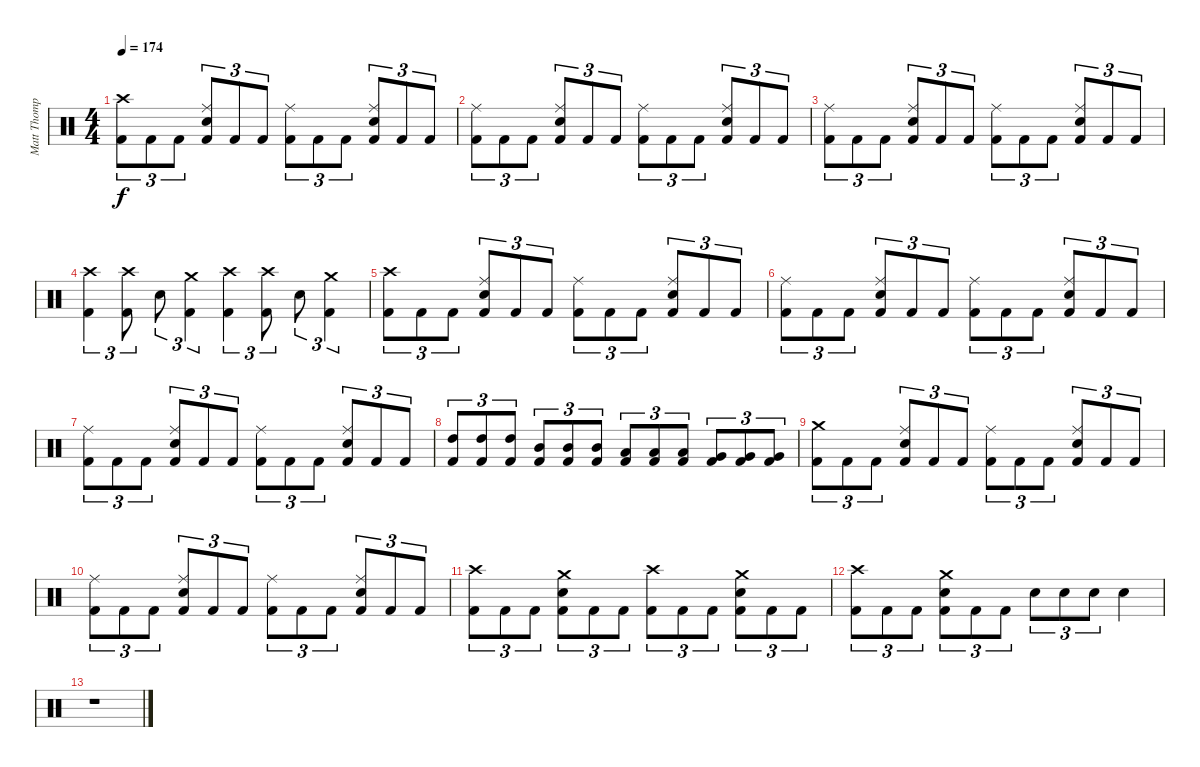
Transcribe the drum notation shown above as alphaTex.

\track ("Matt Thompson" "Matt Thomp") {instrument percussion}
\staff {score}
\articulation defaults
\ts (4 4)
\tempo 174
\clef neutral
\ks c
("Crash high (hit)" "Kick (hit) 2").8{tu (3 2) dy f} "Kick (hit) 2".8{tu (3 2)} "Kick (hit) 2".8{tu (3 2)} ("Ride (middle)" "Snare (hit) 2" "Kick (hit) 2").8{tu (3 2)} "Kick (hit) 2".8{tu (3 2)} "Kick (hit) 2".8{tu (3 2)} ("Ride (middle)" "Kick (hit) 2").8{tu (3 2)} "Kick (hit) 2".8{tu (3 2)} "Kick (hit) 2".8{tu (3 2)} ("Ride (middle)" "Snare (hit) 2" "Kick (hit) 2").8{tu (3 2)} "Kick (hit) 2".8{tu (3 2)} "Kick (hit) 2".8{tu (3 2)} |
("Ride (middle)" "Kick (hit) 2").8{tu (3 2)} "Kick (hit) 2".8{tu (3 2)} "Kick (hit) 2".8{tu (3 2)} ("Ride (middle)" "Snare (hit) 2" "Kick (hit) 2").8{tu (3 2)} "Kick (hit) 2".8{tu (3 2)} "Kick (hit) 2".8{tu (3 2)} ("Ride (middle)" "Kick (hit) 2").8{tu (3 2)} "Kick (hit) 2".8{tu (3 2)} "Kick (hit) 2".8{tu (3 2)} ("Ride (middle)" "Snare (hit) 2" "Kick (hit) 2").8{tu (3 2)} "Kick (hit) 2".8{tu (3 2)} "Kick (hit) 2".8{tu (3 2)} |
("Ride (middle)" "Kick (hit) 2").8{tu (3 2)} "Kick (hit) 2".8{tu (3 2)} "Kick (hit) 2".8{tu (3 2)} ("Ride (middle)" "Snare (hit) 2" "Kick (hit) 2").8{tu (3 2)} "Kick (hit) 2".8{tu (3 2)} "Kick (hit) 2".8{tu (3 2)} ("Ride (middle)" "Kick (hit) 2").8{tu (3 2)} "Kick (hit) 2".8{tu (3 2)} "Kick (hit) 2".8{tu (3 2)} ("Ride (middle)" "Snare (hit) 2" "Kick (hit) 2").8{tu (3 2)} "Kick (hit) 2".8{tu (3 2)} "Kick (hit) 2".8{tu (3 2)} |
("Crash high (hit)" "Kick (hit) 2").4{tu (3 2)} ("Crash high (hit)" "Kick (hit) 2").8{tu (3 2)} "Snare (hit) 2".8{tu (3 2)} ("Crash medium (hit)" "Kick (hit) 2").4{tu (3 2)} ("Crash high (hit)" "Kick (hit) 2").4{tu (3 2)} ("Crash high (hit)" "Kick (hit) 2").8{tu (3 2)} "Snare (hit) 2".8{tu (3 2)} ("Crash medium (hit)" "Kick (hit) 2").4{tu (3 2)} |
("Crash high (hit)" "Kick (hit) 2").8{tu (3 2)} "Kick (hit) 2".8{tu (3 2)} "Kick (hit) 2".8{tu (3 2)} ("Ride (middle)" "Snare (hit) 2" "Kick (hit) 2").8{tu (3 2)} "Kick (hit) 2".8{tu (3 2)} "Kick (hit) 2".8{tu (3 2)} ("Ride (middle)" "Kick (hit) 2").8{tu (3 2)} "Kick (hit) 2".8{tu (3 2)} "Kick (hit) 2".8{tu (3 2)} ("Ride (middle)" "Snare (hit) 2" "Kick (hit) 2").8{tu (3 2)} "Kick (hit) 2".8{tu (3 2)} "Kick (hit) 2".8{tu (3 2)} |
("Ride (middle)" "Kick (hit) 2").8{tu (3 2)} "Kick (hit) 2".8{tu (3 2)} "Kick (hit) 2".8{tu (3 2)} ("Ride (middle)" "Snare (hit) 2" "Kick (hit) 2").8{tu (3 2)} "Kick (hit) 2".8{tu (3 2)} "Kick (hit) 2".8{tu (3 2)} ("Ride (middle)" "Kick (hit) 2").8{tu (3 2)} "Kick (hit) 2".8{tu (3 2)} "Kick (hit) 2".8{tu (3 2)} ("Ride (middle)" "Snare (hit) 2" "Kick (hit) 2").8{tu (3 2)} "Kick (hit) 2".8{tu (3 2)} "Kick (hit) 2".8{tu (3 2)} |
("Ride (middle)" "Kick (hit) 2").8{tu (3 2)} "Kick (hit) 2".8{tu (3 2)} "Kick (hit) 2".8{tu (3 2)} ("Ride (middle)" "Snare (hit) 2" "Kick (hit) 2").8{tu (3 2)} "Kick (hit) 2".8{tu (3 2)} "Kick (hit) 2".8{tu (3 2)} ("Ride (middle)" "Kick (hit) 2").8{tu (3 2)} "Kick (hit) 2".8{tu (3 2)} "Kick (hit) 2".8{tu (3 2)} ("Ride (middle)" "Snare (hit) 2" "Kick (hit) 2").8{tu (3 2)} "Kick (hit) 2".8{tu (3 2)} "Kick (hit) 2".8{tu (3 2)} |
("High Tom (hit)" "Kick (hit) 2").8{tu (3 2)} ("High Tom (hit)" "Kick (hit) 2").8{tu (3 2)} ("High Tom (hit)" "Kick (hit) 2").8{tu (3 2)} ("Mid Tom (hit)" "Kick (hit) 2").8{tu (3 2)} ("Mid Tom (hit)" "Kick (hit) 2").8{tu (3 2)} ("Mid Tom (hit)" "Kick (hit) 2").8{tu (3 2)} ("Low Tom (hit)" "Kick (hit) 2").8{tu (3 2)} ("Low Tom (hit)" "Kick (hit) 2").8{tu (3 2)} ("Low Tom (hit)" "Kick (hit) 2").8{tu (3 2)} ("Very Low Tom (hit)" "Kick (hit) 2").8{tu (3 2)} ("Very Low Tom (hit)" "Kick (hit) 2").8{tu (3 2)} ("Very Low Tom (hit)" "Kick (hit) 2").8{tu (3 2)} |
("Crash medium (hit)" "Kick (hit) 2").8{tu (3 2)} "Kick (hit) 2".8{tu (3 2)} "Kick (hit) 2".8{tu (3 2)} ("Ride (middle)" "Snare (hit) 2" "Kick (hit) 2").8{tu (3 2)} "Kick (hit) 2".8{tu (3 2)} "Kick (hit) 2".8{tu (3 2)} ("Ride (middle)" "Kick (hit) 2").8{tu (3 2)} "Kick (hit) 2".8{tu (3 2)} "Kick (hit) 2".8{tu (3 2)} ("Ride (middle)" "Snare (hit) 2" "Kick (hit) 2").8{tu (3 2)} "Kick (hit) 2".8{tu (3 2)} "Kick (hit) 2".8{tu (3 2)} |
("Ride (middle)" "Kick (hit) 2").8{tu (3 2)} "Kick (hit) 2".8{tu (3 2)} "Kick (hit) 2".8{tu (3 2)} ("Ride (middle)" "Snare (hit) 2" "Kick (hit) 2").8{tu (3 2)} "Kick (hit) 2".8{tu (3 2)} "Kick (hit) 2".8{tu (3 2)} ("Ride (middle)" "Kick (hit) 2").8{tu (3 2)} "Kick (hit) 2".8{tu (3 2)} "Kick (hit) 2".8{tu (3 2)} ("Ride (middle)" "Snare (hit) 2" "Kick (hit) 2").8{tu (3 2)} "Kick (hit) 2".8{tu (3 2)} "Kick (hit) 2".8{tu (3 2)} |
("Crash high (hit)" "Kick (hit) 2").8{tu (3 2)} "Kick (hit) 2".8{tu (3 2)} "Kick (hit) 2".8{tu (3 2)} ("Crash medium (hit)" "Snare (hit) 2" "Kick (hit) 2").8{tu (3 2)} "Kick (hit) 2".8{tu (3 2)} "Kick (hit) 2".8{tu (3 2)} ("Crash high (hit)" "Kick (hit) 2").8{tu (3 2)} "Kick (hit) 2".8{tu (3 2)} "Kick (hit) 2".8{tu (3 2)} ("Crash medium (hit)" "Snare (hit) 2" "Kick (hit) 2").8{tu (3 2)} "Kick (hit) 2".8{tu (3 2)} "Kick (hit) 2".8{tu (3 2)} |
("Crash high (hit)" "Kick (hit) 2").8{tu (3 2)} "Kick (hit) 2".8{tu (3 2)} "Kick (hit) 2".8{tu (3 2)} ("Crash medium (hit)" "Snare (hit) 2" "Kick (hit) 2").8{tu (3 2)} "Kick (hit) 2".8{tu (3 2)} "Kick (hit) 2".8{tu (3 2)} "Snare (hit) 2".8{tu (3 2)} "Snare (hit) 2".8{tu (3 2)} "Snare (hit) 2".8{tu (3 2)} "Snare (hit) 2".4 |
r.1
